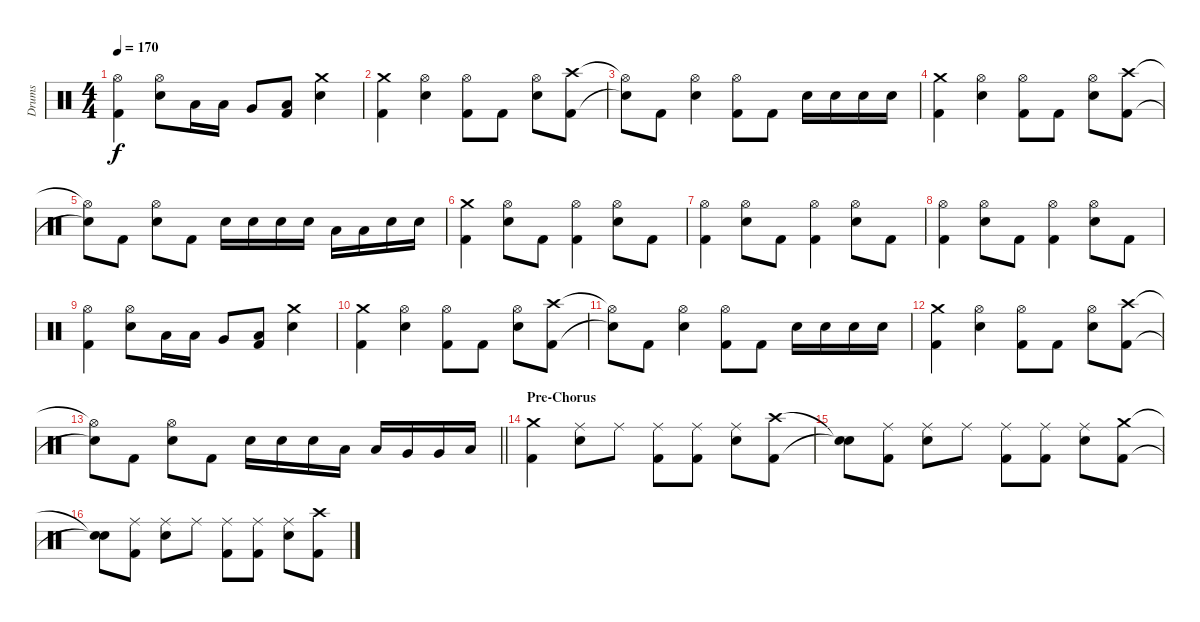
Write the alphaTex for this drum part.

\track ("Drums" "Drums") {instrument percussion}
\staff {score}
\articulation defaults
\ts (4 4)
\tempo 170
\clef neutral
\ks c
("Hi-Hat (open)" "Kick (hit) 2").4{dy f} ("Hi-Hat (open)" "Electric Snare (hit)").8 "Low Tom (hit)".16 "Low Tom (hit)".16 "Very Low Tom (hit)".8 ("Low Floor Tom (hit)" "Kick (hit) 2").8 ("Crash medium (hit)" "Electric Snare (hit)").4 |
("Crash medium (hit)" "Kick (hit) 2").4 ("Hi-Hat (open)" "Electric Snare (hit)").4 ("Hi-Hat (open)" "Kick (hit) 2").8 "Kick (hit) 2".8 ("Hi-Hat (open)" "Electric Snare (hit)").8 ("Crash high (hit)" "Kick (hit) 2").8 |
("Hi-Hat (open)"{t} "Snare (hit)"{t}).8 "Kick (hit) 2".8 ("Hi-Hat (open)" "Electric Snare (hit)").4 ("Hi-Hat (open)" "Kick (hit) 2").8 "Kick (hit) 2".8 "Electric Snare (hit)".16 "Electric Snare (hit)".16 "Electric Snare (hit)".16 "Electric Snare (hit)".16 |
("Crash medium (hit)" "Kick (hit) 2").4 ("Hi-Hat (open)" "Electric Snare (hit)").4 ("Hi-Hat (open)" "Kick (hit) 2").8 "Kick (hit) 2".8 ("Hi-Hat (open)" "Electric Snare (hit)").8 ("Crash high (hit)" "Kick (hit) 2").8 |
("Hi-Hat (open)"{t} "Snare (hit)"{t}).8 "Kick (hit) 2".8 ("Hi-Hat (open)" "Electric Snare (hit)").8 "Kick (hit) 2".8 "Electric Snare (hit)".16 "Electric Snare (hit)".16 "Electric Snare (hit)".16 "Electric Snare (hit)".16 "Low Tom (hit)".16 "Low Tom (hit)".16 "Electric Snare (hit)".16 "Electric Snare (hit)".16 |
("Crash medium (hit)" "Kick (hit) 2").4 ("Hi-Hat (open)" "Electric Snare (hit)").8 "Kick (hit) 2".8 ("Hi-Hat (open)" "Kick (hit) 2").4 ("Hi-Hat (open)" "Electric Snare (hit)").8 "Kick (hit) 2".8 |
("Hi-Hat (open)" "Kick (hit) 2").4 ("Hi-Hat (open)" "Electric Snare (hit)").8 "Kick (hit) 2".8 ("Hi-Hat (open)" "Kick (hit) 2").4 ("Hi-Hat (open)" "Electric Snare (hit)").8 "Kick (hit) 2".8 |
("Hi-Hat (open)" "Kick (hit) 2").4 ("Hi-Hat (open)" "Electric Snare (hit)").8 "Kick (hit) 2".8 ("Hi-Hat (open)" "Kick (hit) 2").4 ("Hi-Hat (open)" "Electric Snare (hit)").8 "Kick (hit) 2".8 |
("Hi-Hat (open)" "Kick (hit) 2").4 ("Hi-Hat (open)" "Electric Snare (hit)").8 "Low Tom (hit)".16 "Low Tom (hit)".16 "Very Low Tom (hit)".8 ("Low Floor Tom (hit)" "Kick (hit) 2").8 ("Crash medium (hit)" "Electric Snare (hit)").4 |
("Crash medium (hit)" "Kick (hit) 2").4 ("Hi-Hat (open)" "Electric Snare (hit)").4 ("Hi-Hat (open)" "Kick (hit) 2").8 "Kick (hit) 2".8 ("Hi-Hat (open)" "Electric Snare (hit)").8 ("Crash high (hit)" "Kick (hit) 2").8 |
("Hi-Hat (open)"{t} "Snare (hit)"{t}).8 "Kick (hit) 2".8 ("Hi-Hat (open)" "Electric Snare (hit)").4 ("Hi-Hat (open)" "Kick (hit) 2").8 "Kick (hit) 2".8 "Electric Snare (hit)".16 "Electric Snare (hit)".16 "Electric Snare (hit)".16 "Electric Snare (hit)".16 |
("Crash medium (hit)" "Kick (hit) 2").4 ("Hi-Hat (open)" "Electric Snare (hit)").4 ("Hi-Hat (open)" "Kick (hit) 2").8 "Kick (hit) 2".8 ("Hi-Hat (open)" "Electric Snare (hit)").8 ("Crash high (hit)" "Kick (hit) 2").8 |
\barLineRight lightlight
("Hi-Hat (open)"{t} "Snare (hit)"{t}).8 "Kick (hit) 2".8 ("Hi-Hat (open)" "Electric Snare (hit)").8 "Kick (hit) 2".8 "Electric Snare (hit)".16 "Electric Snare (hit)".16 "Electric Snare (hit)".16 "Low Tom (hit)".16 "Low Tom (hit)".16 "Very Low Tom (hit)".16 "Very Low Tom (hit)".16 "Low Floor Tom (hit)".16 |
\section ("" "Pre-Chorus")
("Crash medium (hit)" "Kick (hit) 2").4 ("Ride (middle)" "Electric Snare (hit)").8 "Ride (middle)".8 ("Ride (middle)" "Kick (hit) 2").8 ("Ride (middle)" "Kick (hit) 2").8 ("Ride (middle)" "Electric Snare (hit)").8 ("Crash high (hit)" "Kick (hit) 2").8 |
("Snare (hit)"{t} "Snare (hit)"{t}).8 ("Ride (middle)" "Kick (hit) 2").8 ("Ride (middle)" "Electric Snare (hit)").8 "Ride (middle)".8 ("Ride (middle)" "Kick (hit) 2").8 ("Ride (middle)" "Kick (hit) 2").8 ("Ride (middle)" "Electric Snare (hit)").8 ("Crash medium (hit)" "Kick (hit) 2").8 |
("Snare (hit)"{t} "Snare (hit)"{t}).8 ("Ride (middle)" "Kick (hit) 2").8 ("Ride (middle)" "Electric Snare (hit)").8 "Ride (middle)".8 ("Ride (middle)" "Kick (hit) 2").8 ("Ride (middle)" "Kick (hit) 2").8 ("Ride (middle)" "Electric Snare (hit)").8 ("Crash high (hit)" "Kick (hit) 2").8
